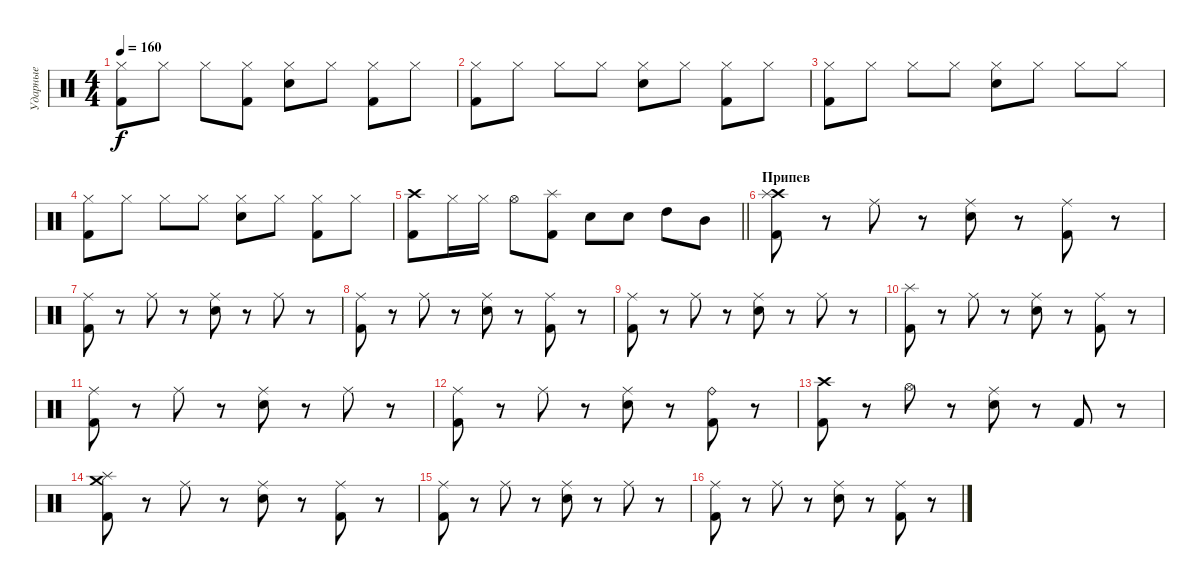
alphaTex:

\track ("Ударные" "Ударные") {instrument percussion}
\staff {score}
\articulation defaults
\ts (4 4)
\tempo 160
\clef neutral
\ks c
("Kick (hit) 2" "Hi-Hat (closed)").8{dy f} "Hi-Hat (closed)".8 "Hi-Hat (closed)".8 ("Kick (hit) 2" "Hi-Hat (closed)").8 ("Electric Snare (hit)" "Hi-Hat (closed)").8 "Hi-Hat (closed)".8 ("Kick (hit) 2" "Hi-Hat (closed)").8 "Hi-Hat (closed)".8 |
("Kick (hit) 2" "Hi-Hat (closed)").8 "Hi-Hat (closed)".8 "Hi-Hat (closed)".8 "Hi-Hat (closed)".8 ("Electric Snare (hit)" "Hi-Hat (closed)").8 "Hi-Hat (closed)".8 ("Kick (hit) 2" "Hi-Hat (closed)").8 "Hi-Hat (closed)".8 |
("Kick (hit) 2" "Hi-Hat (closed)").8 "Hi-Hat (closed)".8 "Hi-Hat (closed)".8 "Hi-Hat (closed)".8 ("Electric Snare (hit)" "Hi-Hat (closed)").8 "Hi-Hat (closed)".8 "Hi-Hat (closed)".8 "Hi-Hat (closed)".8 |
("Kick (hit) 2" "Hi-Hat (closed)").8 "Hi-Hat (closed)".8 "Hi-Hat (closed)".8 "Hi-Hat (closed)".8 ("Electric Snare (hit)" "Hi-Hat (closed)").8 "Hi-Hat (closed)".8 ("Kick (hit) 2" "Hi-Hat (closed)").8 "Hi-Hat (closed)".8 |
\barLineRight lightlight
("Kick (hit) 2" "Crash high (hit)").8 "Hi-Hat (closed)".16 "Hi-Hat (closed)".16 "Hi-Hat (open)".8 ("Kick (hit) 2" "Splash (hit)").8 "Electric Snare (hit)".8 "Electric Snare (hit)".8 "High Tom (hit)".8 "Mid Tom (hit)".8 |
\section ("" "Припев")
("Kick (hit) 2" "Crash high (hit)" "Splash (hit)").8 r.8 "Ride (middle)".8 r.8 ("Electric Snare (hit)" "Ride (middle)").8 r.8 ("Kick (hit) 2" "Ride (middle)").8 r.8 |
("Kick (hit) 2" "Ride (middle)").8 r.8 "Ride (middle)".8 r.8 ("Electric Snare (hit)" "Ride (middle)").8 r.8 "Ride (middle)".8 r.8 |
("Kick (hit) 2" "Ride (middle)").8 r.8 "Ride (middle)".8 r.8 ("Electric Snare (hit)" "Ride (middle)").8 r.8 ("Kick (hit) 2" "Ride (middle)").8 r.8 |
("Kick (hit) 2" "Ride (middle)").8 r.8 "Ride (middle)".8 r.8 ("Electric Snare (hit)" "Ride (middle)").8 r.8 "Ride (middle)".8 r.8 |
("Kick (hit) 2" "Splash (hit)").8 r.8 "Ride (middle)".8 r.8 ("Electric Snare (hit)" "Ride (middle)").8 r.8 ("Kick (hit) 2" "Ride (middle)").8 r.8 |
("Kick (hit) 2" "Ride (middle)").8 r.8 "Ride (middle)".8 r.8 ("Electric Snare (hit)" "Ride (middle)").8 r.8 "Ride (middle)".8 r.8 |
("Kick (hit) 2" "Ride (middle)").8 r.8 "Ride (middle)".8 r.8 ("Electric Snare (hit)" "Ride (middle)").8 r.8 ("Kick (hit) 2" "Ride (bell)").8 r.8 |
("Kick (hit) 2" "Crash high (hit)").8 r.8 "Hi-Hat (open)".8 r.8 ("Electric Snare (hit)" "Ride (middle)").8 r.8 "Kick (hit) 2".8 r.8 |
("Kick (hit) 2" "Crash medium (hit)" "Splash (hit)").8 r.8 "Ride (middle)".8 r.8 ("Electric Snare (hit)" "Ride (middle)").8 r.8 ("Kick (hit) 2" "Ride (middle)").8 r.8 |
("Kick (hit) 2" "Ride (middle)").8 r.8 "Ride (middle)".8 r.8 ("Electric Snare (hit)" "Ride (middle)").8 r.8 "Ride (middle)".8 r.8 |
("Kick (hit) 2" "Ride (middle)").8 r.8 "Ride (middle)".8 r.8 ("Electric Snare (hit)" "Ride (middle)").8 r.8 ("Kick (hit) 2" "Ride (middle)").8 r.8
